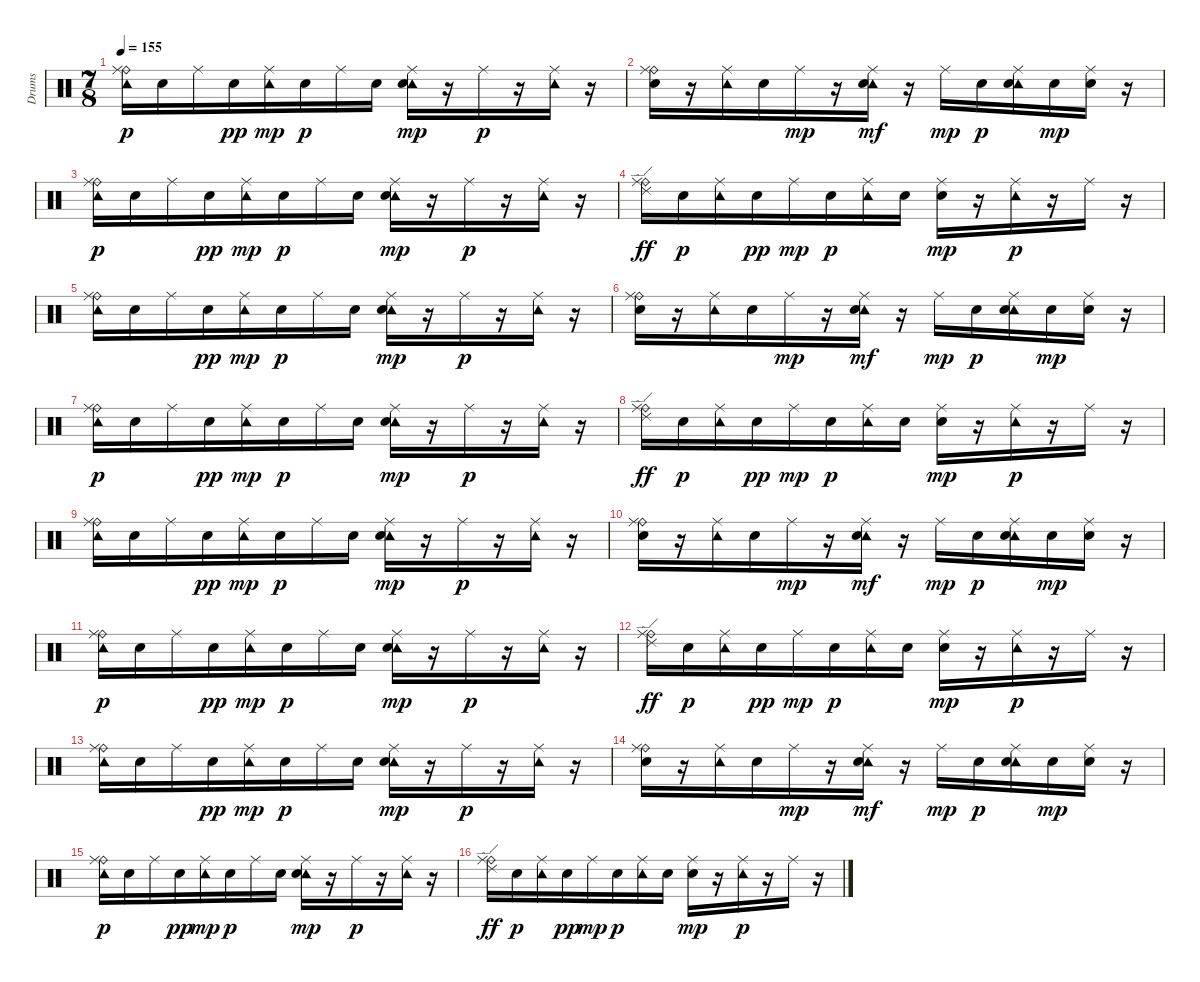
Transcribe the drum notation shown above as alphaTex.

\track ("Drums" "Drums") {instrument percussion}
\staff {score}
\articulation defaults
\ts (7 8)
\tempo 155
\clef neutral
\ks c
("Tambourine (hit)" "Ride (bell)" "Ride (middle)").16{dy p} "Electric Snare (hit)".16 "Ride (middle)".16 "Electric Snare (hit)".16{dy pp} ("Tambourine (hit)" "Ride (middle)").16{dy mp} "Electric Snare (hit)".16{dy p} "Ride (middle)".16 "Electric Snare (hit)".16 ("Tambourine (hit)" "Ride (middle)" "Electric Snare (hit)").16{dy mp} r.16 "Ride (middle)".16{dy p} r.16 ("Tambourine (hit)" "Ride (middle)").16 r.16 |
("Ride (bell)" "Ride (middle)" "Electric Snare (hit)").16 r.16 ("Tambourine (hit)" "Ride (middle)").16 "Electric Snare (hit)".16 "Ride (middle)".16{dy mp} r.16 ("Tambourine (hit)" "Ride (middle)" "Electric Snare (hit)").16{dy mf} r.16 "Ride (middle)".16{dy mp} "Electric Snare (hit)".16{dy p} ("Tambourine (hit)" "Ride (middle)" "Electric Snare (hit)").16 "Electric Snare (hit)".16{dy mp} ("Ride (middle)" "Electric Snare (hit)").16 r.16 |
("Tambourine (hit)" "Ride (bell)" "Ride (middle)").16{dy p} "Electric Snare (hit)".16 "Ride (middle)".16 "Electric Snare (hit)".16{dy pp} ("Tambourine (hit)" "Ride (middle)").16{dy mp} "Electric Snare (hit)".16{dy p} "Ride (middle)".16 "Electric Snare (hit)".16 ("Tambourine (hit)" "Ride (middle)" "Electric Snare (hit)").16{dy mp} r.16 "Ride (middle)".16{dy p} r.16 ("Tambourine (hit)" "Ride (middle)").16 r.16 |
("Ride (bell)" "Ride (middle)" "Ride (edge) 2").16{dy ff} "Electric Snare (hit)".16{dy p} ("Tambourine (hit)" "Ride (middle)").16 "Electric Snare (hit)".16{dy pp} "Ride (middle)".16{dy mp} "Electric Snare (hit)".16{dy p} ("Tambourine (hit)" "Ride (middle)").16 "Electric Snare (hit)".16 ("Ride (middle)" "Electric Snare (hit)").16{dy mp} r.16 ("Tambourine (hit)" "Ride (middle)").16{dy p} r.16 "Ride (middle)".16 r.16 |
("Tambourine (hit)" "Ride (bell)" "Ride (middle)").16 "Electric Snare (hit)".16 "Ride (middle)".16 "Electric Snare (hit)".16{dy pp} ("Tambourine (hit)" "Ride (middle)").16{dy mp} "Electric Snare (hit)".16{dy p} "Ride (middle)".16 "Electric Snare (hit)".16 ("Tambourine (hit)" "Ride (middle)" "Electric Snare (hit)").16{dy mp} r.16 "Ride (middle)".16{dy p} r.16 ("Tambourine (hit)" "Ride (middle)").16 r.16 |
("Ride (bell)" "Ride (middle)" "Electric Snare (hit)").16 r.16 ("Tambourine (hit)" "Ride (middle)").16 "Electric Snare (hit)".16 "Ride (middle)".16{dy mp} r.16 ("Tambourine (hit)" "Ride (middle)" "Electric Snare (hit)").16{dy mf} r.16 "Ride (middle)".16{dy mp} "Electric Snare (hit)".16{dy p} ("Tambourine (hit)" "Ride (middle)" "Electric Snare (hit)").16 "Electric Snare (hit)".16{dy mp} ("Ride (middle)" "Electric Snare (hit)").16 r.16 |
("Tambourine (hit)" "Ride (bell)" "Ride (middle)").16{dy p} "Electric Snare (hit)".16 "Ride (middle)".16 "Electric Snare (hit)".16{dy pp} ("Tambourine (hit)" "Ride (middle)").16{dy mp} "Electric Snare (hit)".16{dy p} "Ride (middle)".16 "Electric Snare (hit)".16 ("Tambourine (hit)" "Ride (middle)" "Electric Snare (hit)").16{dy mp} r.16 "Ride (middle)".16{dy p} r.16 ("Tambourine (hit)" "Ride (middle)").16 r.16 |
("Ride (bell)" "Ride (middle)" "Ride (edge) 2").16{dy ff} "Electric Snare (hit)".16{dy p} ("Tambourine (hit)" "Ride (middle)").16 "Electric Snare (hit)".16{dy pp} "Ride (middle)".16{dy mp} "Electric Snare (hit)".16{dy p} ("Tambourine (hit)" "Ride (middle)").16 "Electric Snare (hit)".16 ("Ride (middle)" "Electric Snare (hit)").16{dy mp} r.16 ("Tambourine (hit)" "Ride (middle)").16{dy p} r.16 "Ride (middle)".16 r.16 |
("Tambourine (hit)" "Ride (bell)" "Ride (middle)").16 "Electric Snare (hit)".16 "Ride (middle)".16 "Electric Snare (hit)".16{dy pp} ("Tambourine (hit)" "Ride (middle)").16{dy mp} "Electric Snare (hit)".16{dy p} "Ride (middle)".16 "Electric Snare (hit)".16 ("Tambourine (hit)" "Ride (middle)" "Electric Snare (hit)").16{dy mp} r.16 "Ride (middle)".16{dy p} r.16 ("Tambourine (hit)" "Ride (middle)").16 r.16 |
("Ride (bell)" "Ride (middle)" "Electric Snare (hit)").16 r.16 ("Tambourine (hit)" "Ride (middle)").16 "Electric Snare (hit)".16 "Ride (middle)".16{dy mp} r.16 ("Tambourine (hit)" "Ride (middle)" "Electric Snare (hit)").16{dy mf} r.16 "Ride (middle)".16{dy mp} "Electric Snare (hit)".16{dy p} ("Tambourine (hit)" "Ride (middle)" "Electric Snare (hit)").16 "Electric Snare (hit)".16{dy mp} ("Ride (middle)" "Electric Snare (hit)").16 r.16 |
("Tambourine (hit)" "Ride (bell)" "Ride (middle)").16{dy p} "Electric Snare (hit)".16 "Ride (middle)".16 "Electric Snare (hit)".16{dy pp} ("Tambourine (hit)" "Ride (middle)").16{dy mp} "Electric Snare (hit)".16{dy p} "Ride (middle)".16 "Electric Snare (hit)".16 ("Tambourine (hit)" "Ride (middle)" "Electric Snare (hit)").16{dy mp} r.16 "Ride (middle)".16{dy p} r.16 ("Tambourine (hit)" "Ride (middle)").16 r.16 |
("Ride (bell)" "Ride (middle)" "Ride (edge) 2").16{dy ff} "Electric Snare (hit)".16{dy p} ("Tambourine (hit)" "Ride (middle)").16 "Electric Snare (hit)".16{dy pp} "Ride (middle)".16{dy mp} "Electric Snare (hit)".16{dy p} ("Tambourine (hit)" "Ride (middle)").16 "Electric Snare (hit)".16 ("Ride (middle)" "Electric Snare (hit)").16{dy mp} r.16 ("Tambourine (hit)" "Ride (middle)").16{dy p} r.16 "Ride (middle)".16 r.16 |
("Tambourine (hit)" "Ride (bell)" "Ride (middle)").16 "Electric Snare (hit)".16 "Ride (middle)".16 "Electric Snare (hit)".16{dy pp} ("Tambourine (hit)" "Ride (middle)").16{dy mp} "Electric Snare (hit)".16{dy p} "Ride (middle)".16 "Electric Snare (hit)".16 ("Tambourine (hit)" "Ride (middle)" "Electric Snare (hit)").16{dy mp} r.16 "Ride (middle)".16{dy p} r.16 ("Tambourine (hit)" "Ride (middle)").16 r.16 |
("Ride (bell)" "Ride (middle)" "Electric Snare (hit)").16 r.16 ("Tambourine (hit)" "Ride (middle)").16 "Electric Snare (hit)".16 "Ride (middle)".16{dy mp} r.16 ("Tambourine (hit)" "Ride (middle)" "Electric Snare (hit)").16{dy mf} r.16 "Ride (middle)".16{dy mp} "Electric Snare (hit)".16{dy p} ("Tambourine (hit)" "Ride (middle)" "Electric Snare (hit)").16 "Electric Snare (hit)".16{dy mp} ("Ride (middle)" "Electric Snare (hit)").16 r.16 |
("Tambourine (hit)" "Ride (bell)" "Ride (middle)").16{dy p} "Electric Snare (hit)".16 "Ride (middle)".16 "Electric Snare (hit)".16{dy pp} ("Tambourine (hit)" "Ride (middle)").16{dy mp} "Electric Snare (hit)".16{dy p} "Ride (middle)".16 "Electric Snare (hit)".16 ("Tambourine (hit)" "Ride (middle)" "Electric Snare (hit)").16{dy mp} r.16 "Ride (middle)".16{dy p} r.16 ("Tambourine (hit)" "Ride (middle)").16 r.16 |
("Ride (bell)" "Ride (middle)" "Ride (edge) 2").16{dy ff} "Electric Snare (hit)".16{dy p} ("Tambourine (hit)" "Ride (middle)").16 "Electric Snare (hit)".16{dy pp} "Ride (middle)".16{dy mp} "Electric Snare (hit)".16{dy p} ("Tambourine (hit)" "Ride (middle)").16 "Electric Snare (hit)".16 ("Ride (middle)" "Electric Snare (hit)").16{dy mp} r.16 ("Tambourine (hit)" "Ride (middle)").16{dy p} r.16 "Ride (middle)".16 r.16
